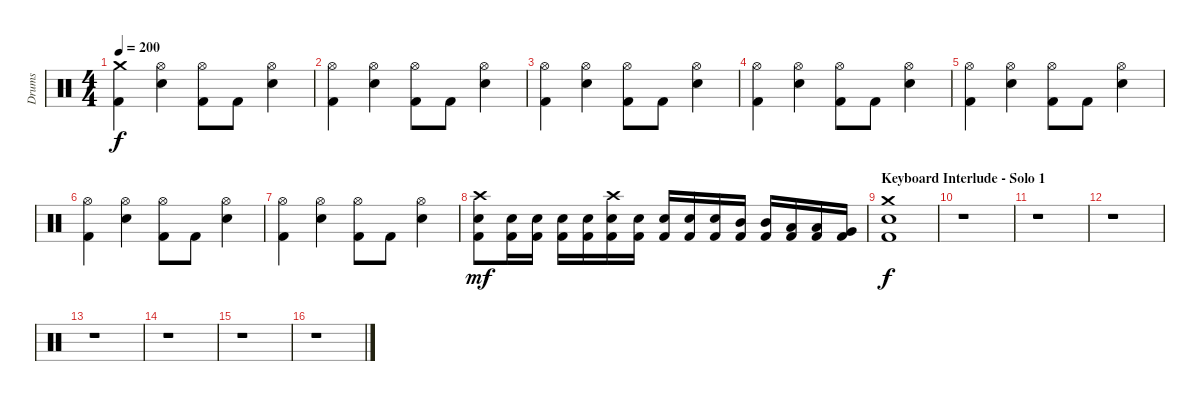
\track ("Drums" "Drums") {instrument percussion}
\staff {score}
\articulation defaults
\ts (4 4)
\tempo 200
\clef neutral
\ks c
("Crash medium (hit)" "Kick (hit) 2").4{dy f} ("Hi-Hat (open)" "Snare (hit) 2").4 ("Hi-Hat (open)" "Kick (hit) 2").8 "Kick (hit) 2".8 ("Hi-Hat (open)" "Snare (hit) 2").4 |
("Hi-Hat (open)" "Kick (hit) 2").4 ("Hi-Hat (open)" "Snare (hit) 2").4 ("Hi-Hat (open)" "Kick (hit) 2").8 "Kick (hit) 2".8 ("Hi-Hat (open)" "Snare (hit) 2").4 |
("Hi-Hat (open)" "Kick (hit) 2").4 ("Hi-Hat (open)" "Snare (hit) 2").4 ("Hi-Hat (open)" "Kick (hit) 2").8 "Kick (hit) 2".8 ("Hi-Hat (open)" "Snare (hit) 2").4 |
("Hi-Hat (open)" "Kick (hit) 2").4 ("Hi-Hat (open)" "Snare (hit) 2").4 ("Hi-Hat (open)" "Kick (hit) 2").8 "Kick (hit) 2".8 ("Hi-Hat (open)" "Snare (hit) 2").4 |
("Hi-Hat (open)" "Kick (hit) 2").4 ("Hi-Hat (open)" "Snare (hit) 2").4 ("Hi-Hat (open)" "Kick (hit) 2").8 "Kick (hit) 2".8 ("Hi-Hat (open)" "Snare (hit) 2").4 |
("Hi-Hat (open)" "Kick (hit) 2").4 ("Hi-Hat (open)" "Snare (hit) 2").4 ("Hi-Hat (open)" "Kick (hit) 2").8 "Kick (hit) 2".8 ("Hi-Hat (open)" "Snare (hit) 2").4 |
("Hi-Hat (open)" "Kick (hit) 2").4 ("Hi-Hat (open)" "Snare (hit) 2").4 ("Hi-Hat (open)" "Kick (hit) 2").8 "Kick (hit) 2".8 ("Hi-Hat (open)" "Snare (hit) 2").4 |
("Crash high (hit)" "Snare (hit) 2" "Kick (hit) 2").8{dy mf} ("Snare (hit) 2" "Kick (hit) 2").16 ("Snare (hit) 2" "Kick (hit) 2").16 ("Snare (hit) 2" "Kick (hit) 2").16 ("Snare (hit) 2" "Kick (hit) 2").16 ("Crash high (hit)" "Snare (hit) 2" "Kick (hit) 2").16 ("Snare (hit) 2" "Kick (hit) 2").16 ("Snare (hit) 2" "Kick (hit) 2").16 ("Snare (hit) 2" "Kick (hit) 2").16 ("Snare (hit) 2" "Kick (hit) 2").16 ("Mid Tom (hit)" "Kick (hit) 2").16 ("Mid Tom (hit)" "Kick (hit) 2").16 ("Low Tom (hit)" "Kick (hit) 2").16 ("Low Tom (hit)" "Kick (hit) 2").16 ("Very Low Tom (hit)" "Kick (hit) 2").16 |
\section ("" "Keyboard Interlude - Solo 1")
("Crash medium (hit)" "Snare (hit) 2" "Kick (hit) 2").1{dy f} |
r.1 |
r.1 |
r.1 |
r.1 |
r.1 |
r.1 |
r.1
